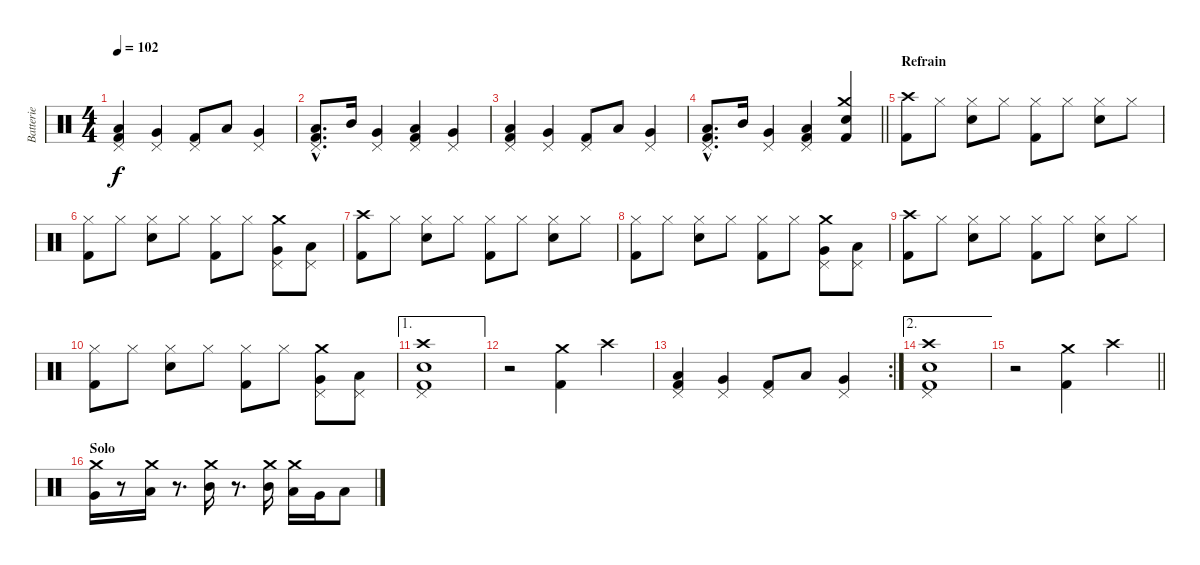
\track ("Batterie" "Batterie") {instrument percussion}
\staff {score}
\articulation defaults
\ts (4 4)
\tempo 102
\clef neutral
\ks c
("Pedal Hi-Hat (hit)" "Low Tom (hit)" "Kick (hit) 2").4{dy f} ("Pedal Hi-Hat (hit)" "Very Low Tom (hit)").4 ("Pedal Hi-Hat (hit)" "Kick (hit) 2").8 "Low Floor Tom (hit)".8 ("Pedal Hi-Hat (hit)" "Very Low Tom (hit)").4 |
("Pedal Hi-Hat (hit)"{hac} "Low Tom (hit)"{hac} "Kick (hit) 2"{hac}).8{d} "Mid Tom (hit)".16 ("Pedal Hi-Hat (hit)" "Very Low Tom (hit)").4 ("Pedal Hi-Hat (hit)" "Low Floor Tom (hit)" "Kick (hit) 2").4 ("Pedal Hi-Hat (hit)" "Very Low Tom (hit)").4 |
("Pedal Hi-Hat (hit)" "Low Tom (hit)" "Kick (hit) 2").4 ("Pedal Hi-Hat (hit)" "Very Low Tom (hit)").4 ("Pedal Hi-Hat (hit)" "Kick (hit) 2").8 "Low Floor Tom (hit)".8 ("Pedal Hi-Hat (hit)" "Very Low Tom (hit)").4 |
\barLineRight lightlight
("Pedal Hi-Hat (hit)"{hac} "Low Tom (hit)"{hac} "Kick (hit) 2"{hac}).8{d} "Mid Tom (hit)".16 ("Pedal Hi-Hat (hit)" "Very Low Tom (hit)").4 ("Pedal Hi-Hat (hit)" "Low Floor Tom (hit)" "Kick (hit) 2").4 ("Crash medium (hit)" "Snare (hit) 2" "Kick (hit) 2").4 |
\section ("" "Refrain")
("Crash high (hit)" "Kick (hit) 2").8 "Hi-Hat (closed)".8 ("Hi-Hat (closed)" "Snare (hit) 2").8 "Hi-Hat (closed)".8 ("Hi-Hat (closed)" "Kick (hit) 2").8 "Hi-Hat (closed)".8 ("Hi-Hat (closed)" "Snare (hit) 2").8 "Hi-Hat (closed)".8 |
("Hi-Hat (closed)" "Kick (hit) 2").8 "Hi-Hat (closed)".8 ("Hi-Hat (closed)" "Snare (hit) 2").8 "Hi-Hat (closed)".8 ("Hi-Hat (closed)" "Kick (hit) 2").8 "Hi-Hat (closed)".8 ("Pedal Hi-Hat (hit)" "Crash medium (hit)" "Very Low Tom (hit)").8 ("Pedal Hi-Hat (hit)" "Low Floor Tom (hit)").8 |
("Crash high (hit)" "Kick (hit) 2").8 "Hi-Hat (closed)".8 ("Hi-Hat (closed)" "Snare (hit) 2").8 "Hi-Hat (closed)".8 ("Hi-Hat (closed)" "Kick (hit) 2").8 "Hi-Hat (closed)".8 ("Hi-Hat (closed)" "Snare (hit) 2").8 "Hi-Hat (closed)".8 |
("Hi-Hat (closed)" "Kick (hit) 2").8 "Hi-Hat (closed)".8 ("Hi-Hat (closed)" "Snare (hit) 2").8 "Hi-Hat (closed)".8 ("Hi-Hat (closed)" "Kick (hit) 2").8 "Hi-Hat (closed)".8 ("Pedal Hi-Hat (hit)" "Crash medium (hit)" "Very Low Tom (hit)").8 ("Pedal Hi-Hat (hit)" "Low Floor Tom (hit)").8 |
("Crash high (hit)" "Kick (hit) 2").8 "Hi-Hat (closed)".8 ("Hi-Hat (closed)" "Snare (hit) 2").8 "Hi-Hat (closed)".8 ("Hi-Hat (closed)" "Kick (hit) 2").8 "Hi-Hat (closed)".8 ("Hi-Hat (closed)" "Snare (hit) 2").8 "Hi-Hat (closed)".8 |
("Hi-Hat (closed)" "Kick (hit) 2").8 "Hi-Hat (closed)".8 ("Hi-Hat (closed)" "Snare (hit) 2").8 "Hi-Hat (closed)".8 ("Hi-Hat (closed)" "Kick (hit) 2").8 "Hi-Hat (closed)".8 ("Pedal Hi-Hat (hit)" "Crash medium (hit)" "Very Low Tom (hit)").8 ("Pedal Hi-Hat (hit)" "Low Floor Tom (hit)").8 |
\ae 1
("Pedal Hi-Hat (hit)" "Crash high (hit)" "Snare (hit) 2" "Kick (hit) 2").1 |
r.2 ("Crash medium (hit)" "Kick (hit) 2").4 "Crash high (hit)".4 |
\rc 2
("Pedal Hi-Hat (hit)" "Low Tom (hit)" "Kick (hit) 2").4 ("Pedal Hi-Hat (hit)" "Very Low Tom (hit)").4 ("Pedal Hi-Hat (hit)" "Kick (hit) 2").8 "Low Floor Tom (hit)".8 ("Pedal Hi-Hat (hit)" "Very Low Tom (hit)").4 |
\ae 2
("Pedal Hi-Hat (hit)" "Crash high (hit)" "Snare (hit) 2" "Kick (hit) 2").1 |
\barLineRight lightlight
r.2 ("Crash medium (hit)" "Kick (hit) 2").4 "Crash high (hit)".4 |
\section ("" "Solo")
("Crash medium (hit)" "Very Low Tom (hit)").16 r.8 ("Crash medium (hit)" "Low Tom (hit)").16 r.8{d} ("Crash medium (hit)" "Mid Tom (hit)").16 r.8{d} ("Crash medium (hit)" "Mid Tom (hit)").16 ("Crash medium (hit)" "Low Tom (hit)").16 "Very Low Tom (hit)".16 "Low Floor Tom (hit)".8
